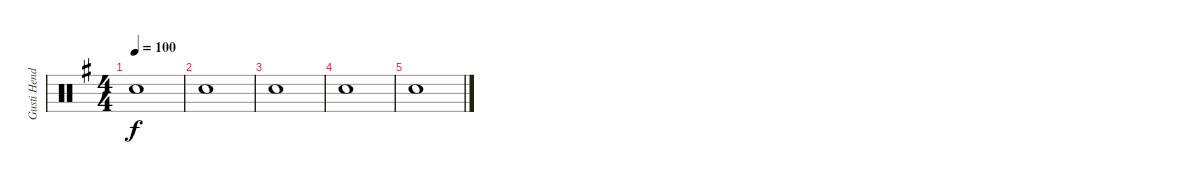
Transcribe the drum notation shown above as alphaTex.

\track ("Gusti Hendy" "Gusti Hend") {instrument percussion}
\staff {score}
\articulation defaults
\ts (4 4)
\tempo 100
\clef neutral
\ks g "Snare (hit)".1{dy f}
|
"Snare (hit)".1 |
"Snare (hit)".1 |
"Snare (hit)".1 |
"Snare (hit)".1
